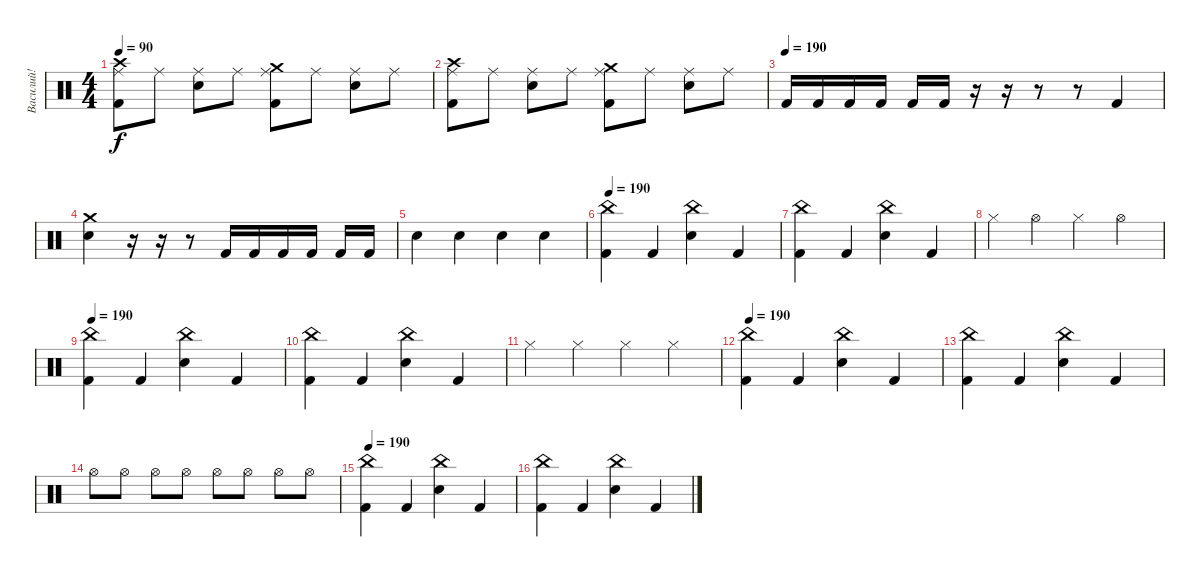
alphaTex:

\track ("Василий!" "Василий!") {instrument percussion}
\staff {score}
\articulation defaults
\ts (4 4)
\tempo 90
\clef neutral
\ks c
("Ride (middle)" "Kick (hit) 2" "Crash high (hit)").8{dy f} "Ride (middle)".8 ("Ride (middle)" "Electric Snare (hit)").8 "Ride (middle)".8 ("Ride (middle)" "Kick (hit) 2" "Crash medium (hit)").8 "Ride (middle)".8 ("Ride (middle)" "Electric Snare (hit)").8 "Ride (middle)".8 |
("Ride (middle)" "Kick (hit) 2" "Crash high (hit)").8 "Ride (middle)".8 ("Ride (middle)" "Electric Snare (hit)").8 "Ride (middle)".8 ("Ride (middle)" "Kick (hit) 2" "Crash medium (hit)").8 "Ride (middle)".8 ("Ride (middle)" "Electric Snare (hit)").8 "Ride (middle)".8 |
\tempo (190)
"Kick (hit) 2".16 "Kick (hit) 2".16 "Kick (hit) 2".16 "Kick (hit) 2".16 "Kick (hit) 2".16 "Kick (hit) 2".16 r.16 r.16 r.8 r.8 "Kick (hit) 2".4 |
("Electric Snare (hit)" "Crash medium (hit)").4 r.16 r.16 r.8 "Kick (hit) 2".16 "Kick (hit) 2".16 "Kick (hit) 2".16 "Kick (hit) 2".16 "Kick (hit) 2".16 "Kick (hit) 2".16 |
"Electric Snare (hit)".4 "Electric Snare (hit)".4 "Electric Snare (hit)".4 "Electric Snare (hit)".4 |
\tempo 190
("China (hit)" "Kick (hit) 2").4 "Kick (hit) 2".4 ("China (hit)" "Electric Snare (hit)").4 "Kick (hit) 2".4 |
("China (hit)" "Kick (hit) 2").4 "Kick (hit) 2".4 ("China (hit)" "Electric Snare (hit)").4 "Kick (hit) 2".4 |
"Hi-Hat (closed)".4 "Hi-Hat (open)".4 "Hi-Hat (closed)".4 "Hi-Hat (open)".4 |
\tempo 190
("China (hit)" "Kick (hit) 2").4 "Kick (hit) 2".4 ("China (hit)" "Electric Snare (hit)").4 "Kick (hit) 2".4 |
("China (hit)" "Kick (hit) 2").4 "Kick (hit) 2".4 ("China (hit)" "Electric Snare (hit)").4 "Kick (hit) 2".4 |
"Hi-Hat (closed)".4 "Hi-Hat (closed)".4 "Hi-Hat (closed)".4 "Hi-Hat (closed)".4 |
\tempo 190
("China (hit)" "Kick (hit) 2").4 "Kick (hit) 2".4 ("China (hit)" "Electric Snare (hit)").4 "Kick (hit) 2".4 |
("China (hit)" "Kick (hit) 2").4 "Kick (hit) 2".4 ("China (hit)" "Electric Snare (hit)").4 "Kick (hit) 2".4 |
"Hi-Hat (open)".8 "Hi-Hat (open)".8 "Hi-Hat (open)".8 "Hi-Hat (open)".8 "Hi-Hat (open)".8 "Hi-Hat (open)".8 "Hi-Hat (open)".8 "Hi-Hat (open)".8 |
\tempo 190
("China (hit)" "Kick (hit) 2").4 "Kick (hit) 2".4 ("China (hit)" "Electric Snare (hit)").4 "Kick (hit) 2".4 |
("China (hit)" "Kick (hit) 2").4 "Kick (hit) 2".4 ("China (hit)" "Electric Snare (hit)").4 "Kick (hit) 2".4
